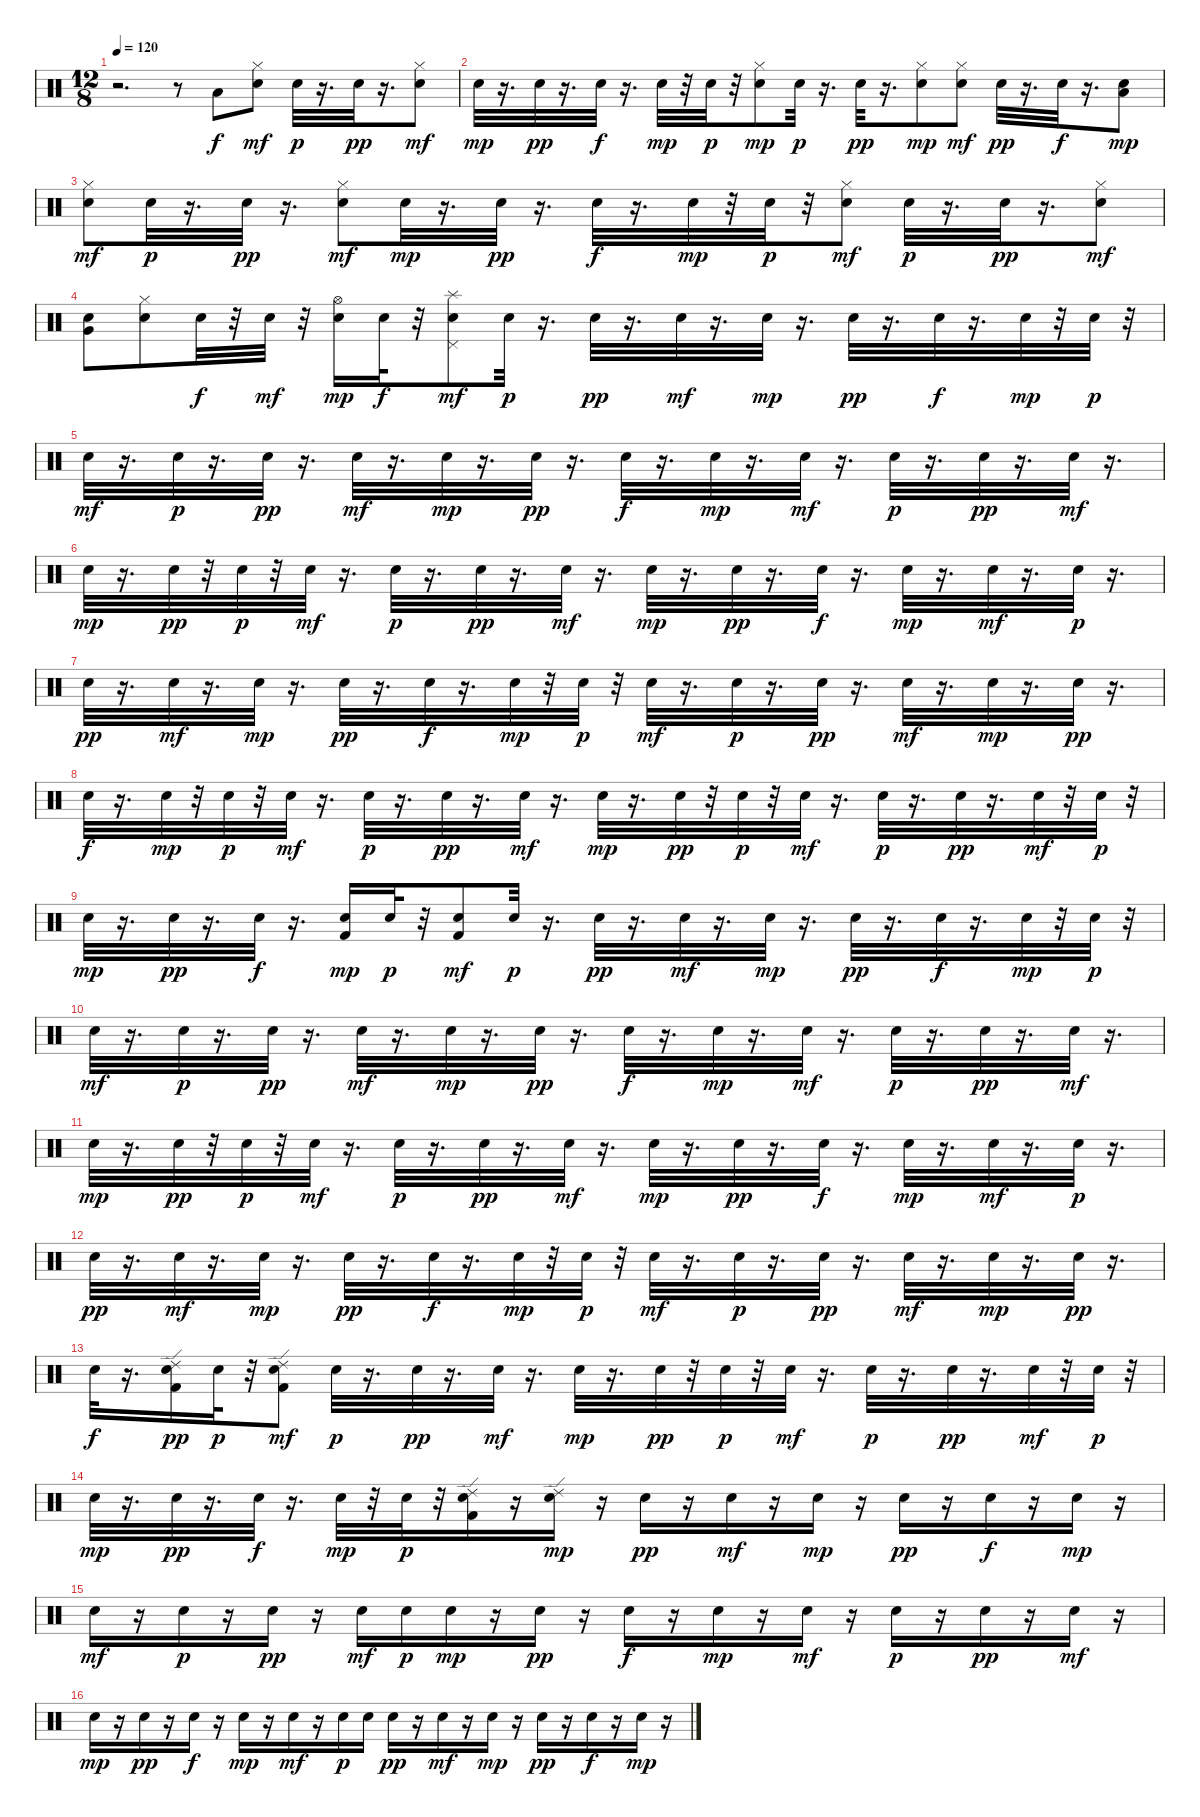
\track "" {instrument percussion}
\staff {score}
\articulation defaults
\ts (12 8)
\tempo 120
\clef neutral
\ks c
r.2{d dy f} r.8 "Low Floor Tom (hit)".8 ("Snare (hit) 2" "Hi-Hat (closed)").8{dy mf} "Snare (hit) 2".32{dy p} r.16{d} "Snare (hit) 2".32{dy pp} r.16{d} ("Snare (hit) 2" "Hi-Hat (closed)").8{dy mf} |
"Snare (hit) 2".32{dy mp} r.16{d} "Snare (hit) 2".32{dy pp} r.16{d} "Snare (hit) 2".32{dy f} r.16{d} "Snare (hit) 2".32{dy mp} r.32 "Snare (hit) 2".32{dy p} r.32 ("Snare (hit) 2" "Hi-Hat (closed)").8{dy mp} "Snare (hit) 2".32{dy p} r.16{d} "Snare (hit) 2".32{dy pp} r.16{d} ("Snare (hit) 2" "Hi-Hat (closed)").8{dy mp} ("Snare (hit) 2" "Hi-Hat (closed)").8{dy mf} "Snare (hit) 2".32{dy pp} r.16{d} "Snare (hit) 2".32{dy f} r.16{d} ("Snare (hit) 2" "Low Floor Tom (hit)").8{dy mp} |
("Hi-Hat (closed)" "Snare (hit) 2").8{dy mf} "Snare (hit) 2".32{dy p} r.16{d} "Snare (hit) 2".32{dy pp} r.16{d} ("Snare (hit) 2" "Hi-Hat (closed)").8{dy mf} "Snare (hit) 2".32{dy mp} r.16{d} "Snare (hit) 2".32{dy pp} r.16{d} "Snare (hit) 2".32{dy f} r.16{d} "Snare (hit) 2".32{dy mp} r.32 "Snare (hit) 2".32{dy p} r.32 ("Snare (hit) 2" "Hi-Hat (closed)").8{dy mf} "Snare (hit) 2".32{dy p} r.16{d} "Snare (hit) 2".32{dy pp} r.16{d} ("Snare (hit) 2" "Hi-Hat (closed)").8{dy mf} |
("Snare (hit) 2" "Very Low Tom (hit)").8 ("Snare (hit) 2" "Hi-Hat (closed)").8 "Snare (hit) 2".32{dy f} r.32 "Snare (hit) 2".32{dy mf} r.32 ("Hi-Hat (open)" "Snare (hit) 2").16{dy mp} "Snare (hit) 2".32{dy f} r.32 ("Snare (hit) 2" "Splash (hit)" "Pedal Hi-Hat (hit)").8{dy mf} "Snare (hit) 2".32{dy p} r.16{d} "Snare (hit) 2".32{dy pp} r.16{d} "Snare (hit) 2".32{dy mf} r.16{d} "Snare (hit) 2".32{dy mp} r.16{d} "Snare (hit) 2".32{dy pp} r.16{d} "Snare (hit) 2".32{dy f} r.16{d} "Snare (hit) 2".32{dy mp} r.32 "Snare (hit) 2".32{dy p} r.32 |
"Snare (hit) 2".32{dy mf} r.16{d} "Snare (hit) 2".32{dy p} r.16{d} "Snare (hit) 2".32{dy pp} r.16{d} "Snare (hit) 2".32{dy mf} r.16{d} "Snare (hit) 2".32{dy mp} r.16{d} "Snare (hit) 2".32{dy pp} r.16{d} "Snare (hit) 2".32{dy f} r.16{d} "Snare (hit) 2".32{dy mp} r.16{d} "Snare (hit) 2".32{dy mf} r.16{d} "Snare (hit) 2".32{dy p} r.16{d} "Snare (hit) 2".32{dy pp} r.16{d} "Snare (hit) 2".32{dy mf} r.16{d} |
"Snare (hit) 2".32{dy mp} r.16{d} "Snare (hit) 2".32{dy pp} r.32 "Snare (hit) 2".32{dy p} r.32 "Snare (hit) 2".32{dy mf} r.16{d} "Snare (hit) 2".32{dy p} r.16{d} "Snare (hit) 2".32{dy pp} r.16{d} "Snare (hit) 2".32{dy mf} r.16{d} "Snare (hit) 2".32{dy mp} r.16{d} "Snare (hit) 2".32{dy pp} r.16{d} "Snare (hit) 2".32{dy f} r.16{d} "Snare (hit) 2".32{dy mp} r.16{d} "Snare (hit) 2".32{dy mf} r.16{d} "Snare (hit) 2".32{dy p} r.16{d} |
"Snare (hit) 2".32{dy pp} r.16{d} "Snare (hit) 2".32{dy mf} r.16{d} "Snare (hit) 2".32{dy mp} r.16{d} "Snare (hit) 2".32{dy pp} r.16{d} "Snare (hit) 2".32{dy f} r.16{d} "Snare (hit) 2".32{dy mp} r.32 "Snare (hit) 2".32{dy p} r.32 "Snare (hit) 2".32{dy mf} r.16{d} "Snare (hit) 2".32{dy p} r.16{d} "Snare (hit) 2".32{dy pp} r.16{d} "Snare (hit) 2".32{dy mf} r.16{d} "Snare (hit) 2".32{dy mp} r.16{d} "Snare (hit) 2".32{dy pp} r.16{d} |
"Snare (hit) 2".32{dy f} r.16{d} "Snare (hit) 2".32{dy mp} r.32 "Snare (hit) 2".32{dy p} r.32 "Snare (hit) 2".32{dy mf} r.16{d} "Snare (hit) 2".32{dy p} r.16{d} "Snare (hit) 2".32{dy pp} r.16{d} "Snare (hit) 2".32{dy mf} r.16{d} "Snare (hit) 2".32{dy mp} r.16{d} "Snare (hit) 2".32{dy pp} r.32 "Snare (hit) 2".32{dy p} r.32 "Snare (hit) 2".32{dy mf} r.16{d} "Snare (hit) 2".32{dy p} r.16{d} "Snare (hit) 2".32{dy pp} r.16{d} "Snare (hit) 2".32{dy mf} r.32 "Snare (hit) 2".32{dy p} r.32 |
"Snare (hit) 2".32{dy mp} r.16{d} "Snare (hit) 2".32{dy pp} r.16{d} "Snare (hit) 2".32{dy f} r.16{d} ("Kick (hit) 2" "Snare (hit) 2").16{dy mp} "Snare (hit) 2".32{dy p} r.32 ("Kick (hit) 2" "Snare (hit) 2").8{dy mf} "Snare (hit) 2".32{dy p} r.16{d} "Snare (hit) 2".32{dy pp} r.16{d} "Snare (hit) 2".32{dy mf} r.16{d} "Snare (hit) 2".32{dy mp} r.16{d} "Snare (hit) 2".32{dy pp} r.16{d} "Snare (hit) 2".32{dy f} r.16{d} "Snare (hit) 2".32{dy mp} r.32 "Snare (hit) 2".32{dy p} r.32 |
"Snare (hit) 2".32{dy mf} r.16{d} "Snare (hit) 2".32{dy p} r.16{d} "Snare (hit) 2".32{dy pp} r.16{d} "Snare (hit) 2".32{dy mf} r.16{d} "Snare (hit) 2".32{dy mp} r.16{d} "Snare (hit) 2".32{dy pp} r.16{d} "Snare (hit) 2".32{dy f} r.16{d} "Snare (hit) 2".32{dy mp} r.16{d} "Snare (hit) 2".32{dy mf} r.16{d} "Snare (hit) 2".32{dy p} r.16{d} "Snare (hit) 2".32{dy pp} r.16{d} "Snare (hit) 2".32{dy mf} r.16{d} |
"Snare (hit) 2".32{dy mp} r.16{d} "Snare (hit) 2".32{dy pp} r.32 "Snare (hit) 2".32{dy p} r.32 "Snare (hit) 2".32{dy mf} r.16{d} "Snare (hit) 2".32{dy p} r.16{d} "Snare (hit) 2".32{dy pp} r.16{d} "Snare (hit) 2".32{dy mf} r.16{d} "Snare (hit) 2".32{dy mp} r.16{d} "Snare (hit) 2".32{dy pp} r.16{d} "Snare (hit) 2".32{dy f} r.16{d} "Snare (hit) 2".32{dy mp} r.16{d} "Snare (hit) 2".32{dy mf} r.16{d} "Snare (hit) 2".32{dy p} r.16{d} |
"Snare (hit) 2".32{dy pp} r.16{d} "Snare (hit) 2".32{dy mf} r.16{d} "Snare (hit) 2".32{dy mp} r.16{d} "Snare (hit) 2".32{dy pp} r.16{d} "Snare (hit) 2".32{dy f} r.16{d} "Snare (hit) 2".32{dy mp} r.32 "Snare (hit) 2".32{dy p} r.32 "Snare (hit) 2".32{dy mf} r.16{d} "Snare (hit) 2".32{dy p} r.16{d} "Snare (hit) 2".32{dy pp} r.16{d} "Snare (hit) 2".32{dy mf} r.16{d} "Snare (hit) 2".32{dy mp} r.16{d} "Snare (hit) 2".32{dy pp} r.16{d} |
"Snare (hit) 2".32{dy f} r.16{d} ("Kick (hit) 2" "Snare (hit) 2" "Ride (edge) 2").16{dy pp} "Snare (hit) 2".32{dy p} r.32 ("Kick (hit) 2" "Snare (hit) 2" "Ride (edge) 2").8{dy mf} "Snare (hit) 2".32{dy p} r.16{d} "Snare (hit) 2".32{dy pp} r.16{d} "Snare (hit) 2".32{dy mf} r.16{d} "Snare (hit) 2".32{dy mp} r.16{d} "Snare (hit) 2".32{dy pp} r.32 "Snare (hit) 2".32{dy p} r.32 "Snare (hit) 2".32{dy mf} r.16{d} "Snare (hit) 2".32{dy p} r.16{d} "Snare (hit) 2".32{dy pp} r.16{d} "Snare (hit) 2".32{dy mf} r.32 "Snare (hit) 2".32{dy p} r.32 |
"Snare (hit) 2".32{dy mp} r.16{d} "Snare (hit) 2".32{dy pp} r.16{d} "Snare (hit) 2".32{dy f} r.16{d} "Snare (hit) 2".32{dy mp} r.32 "Snare (hit) 2".32{dy p} r.32 ("Kick (hit) 2" "Snare (hit) 2" "Ride (edge) 2").16 r.16 ("Snare (hit) 2" "Ride (edge) 2").16{dy mp} r.16 "Snare (hit) 2".16{dy pp} r.16 "Snare (hit) 2".16{dy mf} r.16 "Snare (hit) 2".16{dy mp} r.16 "Snare (hit) 2".16{dy pp} r.16 "Snare (hit) 2".16{dy f} r.16 "Snare (hit) 2".16{dy mp} r.16 |
"Snare (hit) 2".16{dy mf} r.16 "Snare (hit) 2".16{dy p} r.16 "Snare (hit) 2".16{dy pp} r.16 "Snare (hit) 2".16{dy mf} "Snare (hit) 2".16{dy p} "Snare (hit) 2".16{dy mp} r.16 "Snare (hit) 2".16{dy pp} r.16 "Snare (hit) 2".16{dy f} r.16 "Snare (hit) 2".16{dy mp} r.16 "Snare (hit) 2".16{dy mf} r.16 "Snare (hit) 2".16{dy p} r.16 "Snare (hit) 2".16{dy pp} r.16 "Snare (hit) 2".16{dy mf} r.16 |
"Snare (hit) 2".16{dy mp} r.16 "Snare (hit) 2".16{dy pp} r.16 "Snare (hit) 2".16{dy f} r.16 "Snare (hit) 2".16{dy mp} r.16 "Snare (hit) 2".16{dy mf} r.16 "Snare (hit) 2".16{dy p} "Snare (hit) 2".16 "Snare (hit) 2".16{dy pp} r.16 "Snare (hit) 2".16{dy mf} r.16 "Snare (hit) 2".16{dy mp} r.16 "Snare (hit) 2".16{dy pp} r.16 "Snare (hit) 2".16{dy f} r.16 "Snare (hit) 2".16{dy mp} r.16
